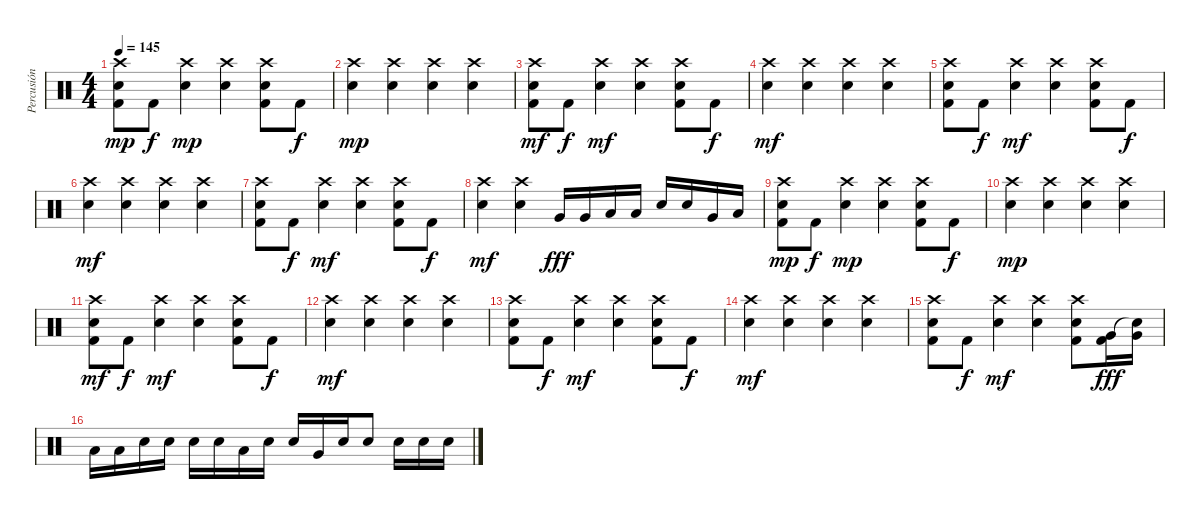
\track ("Percusión" "Percusión") {instrument percussion}
\staff {score}
\articulation defaults
\ts (4 4)
\tempo 145
\clef neutral
\ks c
("Crash high (hit)" "Snare (hit) 2" "Kick (hit) 2").8{dy mp} "Kick (hit) 2".8{dy f} ("Crash high (hit)" "Snare (hit) 2").4{dy mp} ("Crash high (hit)" "Snare (hit) 2").4 ("Crash high (hit)" "Snare (hit) 2" "Kick (hit) 2").8 "Kick (hit) 2".8{dy f} |
("Crash high (hit)" "Snare (hit) 2").4{dy mp} ("Crash high (hit)" "Snare (hit) 2").4 ("Crash high (hit)" "Snare (hit) 2").4 ("Crash high (hit)" "Snare (hit) 2").4 |
("Crash high (hit)" "Snare (hit) 2" "Kick (hit) 2").8{dy mf} "Kick (hit) 2".8{dy f} ("Crash high (hit)" "Snare (hit) 2").4{dy mf} ("Crash high (hit)" "Snare (hit) 2").4 ("Crash high (hit)" "Snare (hit) 2" "Kick (hit) 2").8 "Kick (hit) 2".8{dy f} |
("Crash high (hit)" "Snare (hit) 2").4{dy mf} ("Crash high (hit)" "Snare (hit) 2").4 ("Crash high (hit)" "Snare (hit) 2").4 ("Crash high (hit)" "Snare (hit) 2").4 |
("Crash high (hit)" "Snare (hit) 2" "Kick (hit) 2").8 "Kick (hit) 2".8{dy f} ("Crash high (hit)" "Snare (hit) 2").4{dy mf} ("Crash high (hit)" "Snare (hit) 2").4 ("Crash high (hit)" "Snare (hit) 2" "Kick (hit) 2").8 "Kick (hit) 2".8{dy f} |
("Crash high (hit)" "Snare (hit) 2").4{dy mf} ("Crash high (hit)" "Snare (hit) 2").4 ("Crash high (hit)" "Snare (hit) 2").4 ("Crash high (hit)" "Snare (hit) 2").4 |
("Crash high (hit)" "Snare (hit) 2" "Kick (hit) 2").8 "Kick (hit) 2".8{dy f} ("Crash high (hit)" "Snare (hit) 2").4{dy mf} ("Crash high (hit)" "Snare (hit) 2").4 ("Crash high (hit)" "Snare (hit) 2" "Kick (hit) 2").8 "Kick (hit) 2".8{dy f} |
("Crash high (hit)" "Snare (hit) 2").4{dy mf} ("Crash high (hit)" "Snare (hit) 2").4 "Very Low Tom (hit)".16{dy fff} "Very Low Tom (hit)".16 "Low Tom (hit)".16 "Low Tom (hit)".16 "Snare (hit) 2".16 "Snare (hit) 2".16 "Very Low Tom (hit)".16 "Low Tom (hit)".16 |
("Crash high (hit)" "Snare (hit) 2" "Kick (hit) 2").8{dy mp} "Kick (hit) 2".8{dy f} ("Crash high (hit)" "Snare (hit) 2").4{dy mp} ("Crash high (hit)" "Snare (hit) 2").4 ("Crash high (hit)" "Snare (hit) 2" "Kick (hit) 2").8 "Kick (hit) 2".8{dy f} |
("Crash high (hit)" "Snare (hit) 2").4{dy mp} ("Crash high (hit)" "Snare (hit) 2").4 ("Crash high (hit)" "Snare (hit) 2").4 ("Crash high (hit)" "Snare (hit) 2").4 |
("Crash high (hit)" "Snare (hit) 2" "Kick (hit) 2").8{dy mf} "Kick (hit) 2".8{dy f} ("Crash high (hit)" "Snare (hit) 2").4{dy mf} ("Crash high (hit)" "Snare (hit) 2").4 ("Crash high (hit)" "Snare (hit) 2" "Kick (hit) 2").8 "Kick (hit) 2".8{dy f} |
("Crash high (hit)" "Snare (hit) 2").4{dy mf} ("Crash high (hit)" "Snare (hit) 2").4 ("Crash high (hit)" "Snare (hit) 2").4 ("Crash high (hit)" "Snare (hit) 2").4 |
("Crash high (hit)" "Snare (hit) 2" "Kick (hit) 2").8 "Kick (hit) 2".8{dy f} ("Crash high (hit)" "Snare (hit) 2").4{dy mf} ("Crash high (hit)" "Snare (hit) 2").4 ("Crash high (hit)" "Snare (hit) 2" "Kick (hit) 2").8 "Kick (hit) 2".8{dy f} |
("Crash high (hit)" "Snare (hit) 2").4{dy mf} ("Crash high (hit)" "Snare (hit) 2").4 ("Crash high (hit)" "Snare (hit) 2").4 ("Crash high (hit)" "Snare (hit) 2").4 |
("Crash high (hit)" "Snare (hit) 2" "Kick (hit) 2").8 "Kick (hit) 2".8{dy f} ("Crash high (hit)" "Snare (hit) 2").4{dy mf} ("Crash high (hit)" "Snare (hit) 2").4 ("Crash high (hit)" "Snare (hit) 2" "Kick (hit) 2").8 ("Very Low Tom (hit)" "Kick (hit) 2").16{dy fff} ("Very Low Tom (hit)" "Snare (hit)"{t}).16 |
"Low Tom (hit)".16 "Low Tom (hit)".16 "Snare (hit) 2".16 "Snare (hit) 2".16 "Snare (hit) 2".16 "Snare (hit) 2".16 "Low Tom (hit)".16 "Snare (hit) 2".16 "Snare (hit) 2".16 "Very Low Tom (hit)".16 "Snare (hit) 2".16 "Snare (hit) 2".8 "Snare (hit) 2".16 "Snare (hit) 2".16 "Snare (hit) 2".16
